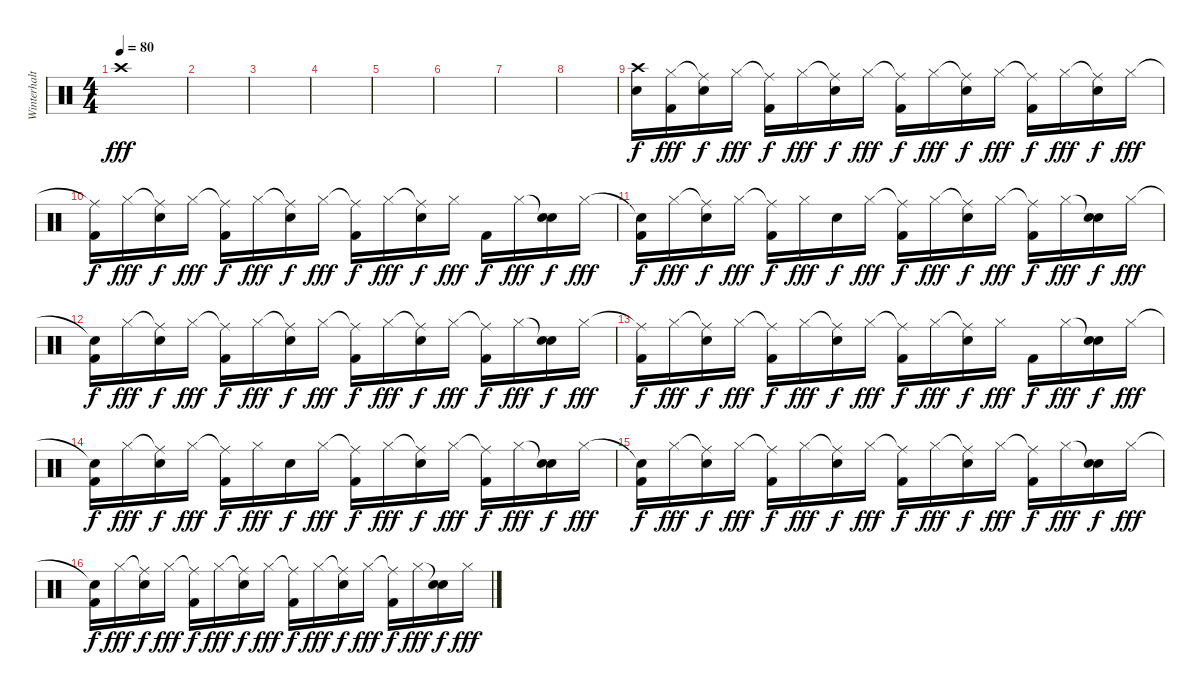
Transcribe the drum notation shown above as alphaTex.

\track ("Winterhalten" "Winterhalt") {instrument percussion}
\staff {score}
\articulation defaults
\ts (4 4)
\tempo 80
\clef neutral
\ks c "Crash high (hit)".1{dy fff}
|
|
|
|
|
|
|
|
("Crash high (hit)" "Snare (hit) 2").16{dy f} ("Hi-Hat (closed)" "Kick (hit) 2").16{dy fff} ("Ride (middle)"{t} "Snare (hit) 2").16{dy f} "Hi-Hat (closed)".16{dy fff} ("Ride (middle)"{t} "Kick (hit) 2").16{dy f} "Hi-Hat (closed)".16{dy fff} ("Ride (middle)"{t} "Snare (hit) 2").16{dy f} "Hi-Hat (closed)".16{dy fff} ("Ride (middle)"{t} "Kick (hit) 2").16{dy f} "Hi-Hat (closed)".16{dy fff} ("Ride (middle)"{t} "Snare (hit) 2").16{dy f} "Hi-Hat (closed)".16{dy fff} ("Ride (middle)"{t} "Kick (hit) 2").16{dy f} "Hi-Hat (closed)".16{dy fff} ("Ride (middle)"{t} "Snare (hit) 2").16{dy f} "Hi-Hat (closed)".16{dy fff} |
("Ride (middle)"{t} "Kick (hit) 2").16{dy f} "Hi-Hat (closed)".16{dy fff} ("Ride (middle)"{t} "Snare (hit) 2").16{dy f} "Hi-Hat (closed)".16{dy fff} ("Ride (middle)"{t} "Kick (hit) 2").16{dy f} "Hi-Hat (closed)".16{dy fff} ("Ride (middle)"{t} "Snare (hit) 2").16{dy f} "Hi-Hat (closed)".16{dy fff} ("Ride (middle)"{t} "Kick (hit) 2").16{dy f} "Hi-Hat (closed)".16{dy fff} ("Ride (middle)"{t} "Snare (hit) 2").16{dy f} "Hi-Hat (closed)".16{dy fff} "Kick (hit) 2".16{dy f} "Hi-Hat (closed)".16{dy fff} ("Snare (hit)"{t} "Snare (hit) 2").16{dy f} "Hi-Hat (closed)".16{dy fff} |
("Snare (hit)"{t} "Kick (hit) 2").16{dy f} "Hi-Hat (closed)".16{dy fff} ("Ride (middle)"{t} "Snare (hit) 2").16{dy f} "Hi-Hat (closed)".16{dy fff} ("Ride (middle)"{t} "Kick (hit) 2").16{dy f} "Hi-Hat (closed)".16{dy fff} "Snare (hit) 2".16{dy f} "Hi-Hat (closed)".16{dy fff} ("Ride (middle)"{t} "Kick (hit) 2").16{dy f} "Hi-Hat (closed)".16{dy fff} ("Ride (middle)"{t} "Snare (hit) 2").16{dy f} "Hi-Hat (closed)".16{dy fff} ("Ride (middle)"{t} "Kick (hit) 2").16{dy f} "Hi-Hat (closed)".16{dy fff} ("Snare (hit)"{t} "Snare (hit) 2").16{dy f} "Hi-Hat (closed)".16{dy fff} |
("Snare (hit)"{t} "Kick (hit) 2").16{dy f} "Hi-Hat (closed)".16{dy fff} ("Ride (middle)"{t} "Snare (hit) 2").16{dy f} "Hi-Hat (closed)".16{dy fff} ("Ride (middle)"{t} "Kick (hit) 2").16{dy f} "Hi-Hat (closed)".16{dy fff} ("Ride (middle)"{t} "Snare (hit) 2").16{dy f} "Hi-Hat (closed)".16{dy fff} ("Ride (middle)"{t} "Kick (hit) 2").16{dy f} "Hi-Hat (closed)".16{dy fff} ("Ride (middle)"{t} "Snare (hit) 2").16{dy f} "Hi-Hat (closed)".16{dy fff} ("Ride (middle)"{t} "Kick (hit) 2").16{dy f} "Hi-Hat (closed)".16{dy fff} ("Snare (hit)"{t} "Snare (hit) 2").16{dy f} "Hi-Hat (closed)".16{dy fff} |
("Ride (middle)"{t} "Kick (hit) 2").16{dy f} "Hi-Hat (closed)".16{dy fff} ("Ride (middle)"{t} "Snare (hit) 2").16{dy f} "Hi-Hat (closed)".16{dy fff} ("Ride (middle)"{t} "Kick (hit) 2").16{dy f} "Hi-Hat (closed)".16{dy fff} ("Ride (middle)"{t} "Snare (hit) 2").16{dy f} "Hi-Hat (closed)".16{dy fff} ("Ride (middle)"{t} "Kick (hit) 2").16{dy f} "Hi-Hat (closed)".16{dy fff} ("Ride (middle)"{t} "Snare (hit) 2").16{dy f} "Hi-Hat (closed)".16{dy fff} "Kick (hit) 2".16{dy f} "Hi-Hat (closed)".16{dy fff} ("Snare (hit)"{t} "Snare (hit) 2").16{dy f} "Hi-Hat (closed)".16{dy fff} |
("Snare (hit)"{t} "Kick (hit) 2").16{dy f} "Hi-Hat (closed)".16{dy fff} ("Ride (middle)"{t} "Snare (hit) 2").16{dy f} "Hi-Hat (closed)".16{dy fff} ("Ride (middle)"{t} "Kick (hit) 2").16{dy f} "Hi-Hat (closed)".16{dy fff} "Snare (hit) 2".16{dy f} "Hi-Hat (closed)".16{dy fff} ("Ride (middle)"{t} "Kick (hit) 2").16{dy f} "Hi-Hat (closed)".16{dy fff} ("Ride (middle)"{t} "Snare (hit) 2").16{dy f} "Hi-Hat (closed)".16{dy fff} ("Ride (middle)"{t} "Kick (hit) 2").16{dy f} "Hi-Hat (closed)".16{dy fff} ("Snare (hit)"{t} "Snare (hit) 2").16{dy f} "Hi-Hat (closed)".16{dy fff} |
("Snare (hit)"{t} "Kick (hit) 2").16{dy f} "Hi-Hat (closed)".16{dy fff} ("Ride (middle)"{t} "Snare (hit) 2").16{dy f} "Hi-Hat (closed)".16{dy fff} ("Ride (middle)"{t} "Kick (hit) 2").16{dy f} "Hi-Hat (closed)".16{dy fff} ("Ride (middle)"{t} "Snare (hit) 2").16{dy f} "Hi-Hat (closed)".16{dy fff} ("Ride (middle)"{t} "Kick (hit) 2").16{dy f} "Hi-Hat (closed)".16{dy fff} ("Ride (middle)"{t} "Snare (hit) 2").16{dy f} "Hi-Hat (closed)".16{dy fff} ("Ride (middle)"{t} "Kick (hit) 2").16{dy f} "Hi-Hat (closed)".16{dy fff} ("Snare (hit)"{t} "Snare (hit) 2").16{dy f} "Hi-Hat (closed)".16{dy fff} |
("Snare (hit)"{t} "Kick (hit) 2").16{dy f} "Hi-Hat (closed)".16{dy fff} ("Ride (middle)"{t} "Snare (hit) 2").16{dy f} "Hi-Hat (closed)".16{dy fff} ("Ride (middle)"{t} "Kick (hit) 2").16{dy f} "Hi-Hat (closed)".16{dy fff} ("Ride (middle)"{t} "Snare (hit) 2").16{dy f} "Hi-Hat (closed)".16{dy fff} ("Ride (middle)"{t} "Kick (hit) 2").16{dy f} "Hi-Hat (closed)".16{dy fff} ("Ride (middle)"{t} "Snare (hit) 2").16{dy f} "Hi-Hat (closed)".16{dy fff} ("Ride (middle)"{t} "Kick (hit) 2").16{dy f} "Hi-Hat (closed)".16{dy fff} ("Snare (hit)"{t} "Snare (hit) 2").16{dy f} "Hi-Hat (closed)".16{dy fff}
